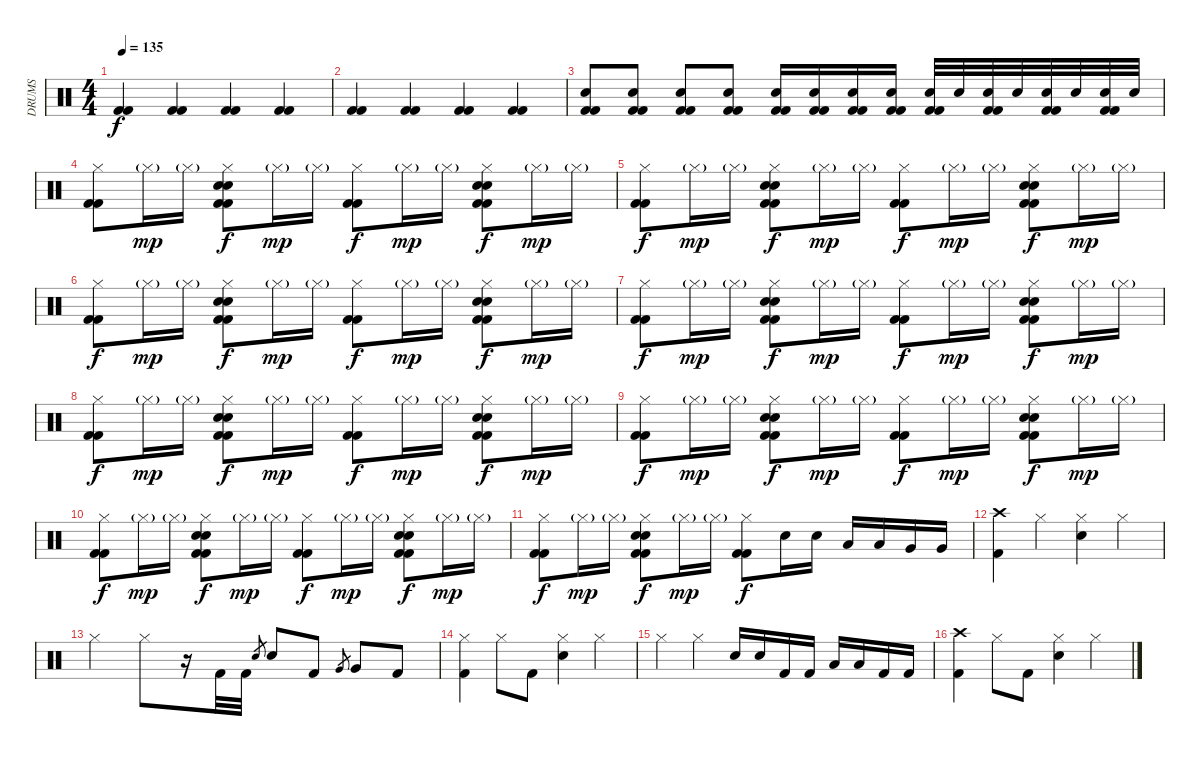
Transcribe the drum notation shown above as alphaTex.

\track ("DRUMS" "DRUMS") {instrument percussion}
\staff {score}
\articulation defaults
\ts (4 4)
\tempo 135
\clef neutral
\ks c
("Kick (hit) 2" "Kick (hit) 2").4{dy f} ("Kick (hit) 2" "Kick (hit) 2").4 ("Kick (hit) 2" "Kick (hit) 2").4 ("Kick (hit) 2" "Kick (hit) 2").4 |
("Kick (hit) 2" "Kick (hit) 2").4 ("Kick (hit) 2" "Kick (hit) 2").4 ("Kick (hit) 2" "Kick (hit) 2").4 ("Kick (hit) 2" "Kick (hit) 2").4 |
("Hand Clap (hit)" "Kick (hit) 2" "Kick (hit) 2").8 ("Hand Clap (hit)" "Kick (hit) 2" "Kick (hit) 2").8 ("Hand Clap (hit)" "Kick (hit) 2" "Kick (hit) 2").8 ("Hand Clap (hit)" "Kick (hit) 2" "Kick (hit) 2").8 ("Hand Clap (hit)" "Kick (hit) 2" "Kick (hit) 2").16 ("Hand Clap (hit)" "Kick (hit) 2" "Kick (hit) 2").16 ("Hand Clap (hit)" "Kick (hit) 2" "Kick (hit) 2").16 ("Hand Clap (hit)" "Kick (hit) 2" "Kick (hit) 2").16 ("Hand Clap (hit)" "Kick (hit) 2" "Kick (hit) 2").32 "Hand Clap (hit)".32 ("Hand Clap (hit)" "Kick (hit) 2" "Kick (hit) 2").32 "Hand Clap (hit)".32 ("Hand Clap (hit)" "Kick (hit) 2" "Kick (hit) 2").32 "Hand Clap (hit)".32 ("Hand Clap (hit)" "Kick (hit) 2" "Kick (hit) 2").32 "Hand Clap (hit)".32 |
("Hi-Hat (closed)" "Kick (hit) 2" "Kick (hit) 2").8 "Hi-Hat (closed)"{g}.16{dy mp} "Hi-Hat (closed)"{g}.16 ("Hand Clap (hit)" "Hi-Hat (closed)" "Hand Clap (hit)" "Kick (hit) 2" "Kick (hit) 2").8{dy f} "Hi-Hat (closed)"{g}.16{dy mp} "Hi-Hat (closed)"{g}.16 ("Hi-Hat (closed)" "Kick (hit) 2" "Kick (hit) 2").8{dy f} "Hi-Hat (closed)"{g}.16{dy mp} "Hi-Hat (closed)"{g}.16 ("Hand Clap (hit)" "Hi-Hat (closed)" "Hand Clap (hit)" "Kick (hit) 2" "Kick (hit) 2").8{dy f} "Hi-Hat (closed)"{g}.16{dy mp} "Hi-Hat (closed)"{g}.16 |
("Hi-Hat (closed)" "Kick (hit) 2" "Kick (hit) 2").8{dy f} "Hi-Hat (closed)"{g}.16{dy mp} "Hi-Hat (closed)"{g}.16 ("Hand Clap (hit)" "Hi-Hat (closed)" "Hand Clap (hit)" "Kick (hit) 2" "Kick (hit) 2").8{dy f} "Hi-Hat (closed)"{g}.16{dy mp} "Hi-Hat (closed)"{g}.16 ("Hi-Hat (closed)" "Kick (hit) 2" "Kick (hit) 2").8{dy f} "Hi-Hat (closed)"{g}.16{dy mp} "Hi-Hat (closed)"{g}.16 ("Hand Clap (hit)" "Hi-Hat (closed)" "Hand Clap (hit)" "Kick (hit) 2" "Kick (hit) 2").8{dy f} "Hi-Hat (closed)"{g}.16{dy mp} "Hi-Hat (closed)"{g}.16 |
("Hi-Hat (closed)" "Kick (hit) 2" "Kick (hit) 2").8{dy f} "Hi-Hat (closed)"{g}.16{dy mp} "Hi-Hat (closed)"{g}.16 ("Hand Clap (hit)" "Hi-Hat (closed)" "Hand Clap (hit)" "Kick (hit) 2" "Kick (hit) 2").8{dy f} "Hi-Hat (closed)"{g}.16{dy mp} "Hi-Hat (closed)"{g}.16 ("Hi-Hat (closed)" "Kick (hit) 2" "Kick (hit) 2").8{dy f} "Hi-Hat (closed)"{g}.16{dy mp} "Hi-Hat (closed)"{g}.16 ("Hand Clap (hit)" "Hi-Hat (closed)" "Hand Clap (hit)" "Kick (hit) 2" "Kick (hit) 2").8{dy f} "Hi-Hat (closed)"{g}.16{dy mp} "Hi-Hat (closed)"{g}.16 |
("Hi-Hat (closed)" "Kick (hit) 2" "Kick (hit) 2").8{dy f} "Hi-Hat (closed)"{g}.16{dy mp} "Hi-Hat (closed)"{g}.16 ("Hand Clap (hit)" "Hi-Hat (closed)" "Hand Clap (hit)" "Kick (hit) 2" "Kick (hit) 2").8{dy f} "Hi-Hat (closed)"{g}.16{dy mp} "Hi-Hat (closed)"{g}.16 ("Hi-Hat (closed)" "Kick (hit) 2" "Kick (hit) 2").8{dy f} "Hi-Hat (closed)"{g}.16{dy mp} "Hi-Hat (closed)"{g}.16 ("Hand Clap (hit)" "Hi-Hat (closed)" "Hand Clap (hit)" "Kick (hit) 2" "Kick (hit) 2").8{dy f} "Hi-Hat (closed)"{g}.16{dy mp} "Hi-Hat (closed)"{g}.16 |
("Hi-Hat (closed)" "Kick (hit) 2" "Kick (hit) 2").8{dy f} "Hi-Hat (closed)"{g}.16{dy mp} "Hi-Hat (closed)"{g}.16 ("Hand Clap (hit)" "Hi-Hat (closed)" "Hand Clap (hit)" "Kick (hit) 2" "Kick (hit) 2").8{dy f} "Hi-Hat (closed)"{g}.16{dy mp} "Hi-Hat (closed)"{g}.16 ("Hi-Hat (closed)" "Kick (hit) 2" "Kick (hit) 2").8{dy f} "Hi-Hat (closed)"{g}.16{dy mp} "Hi-Hat (closed)"{g}.16 ("Hand Clap (hit)" "Hi-Hat (closed)" "Hand Clap (hit)" "Kick (hit) 2" "Kick (hit) 2").8{dy f} "Hi-Hat (closed)"{g}.16{dy mp} "Hi-Hat (closed)"{g}.16 |
("Hi-Hat (closed)" "Kick (hit) 2" "Kick (hit) 2").8{dy f} "Hi-Hat (closed)"{g}.16{dy mp} "Hi-Hat (closed)"{g}.16 ("Hand Clap (hit)" "Hi-Hat (closed)" "Hand Clap (hit)" "Kick (hit) 2" "Kick (hit) 2").8{dy f} "Hi-Hat (closed)"{g}.16{dy mp} "Hi-Hat (closed)"{g}.16 ("Hi-Hat (closed)" "Kick (hit) 2" "Kick (hit) 2").8{dy f} "Hi-Hat (closed)"{g}.16{dy mp} "Hi-Hat (closed)"{g}.16 ("Hand Clap (hit)" "Hi-Hat (closed)" "Hand Clap (hit)" "Kick (hit) 2" "Kick (hit) 2").8{dy f} "Hi-Hat (closed)"{g}.16{dy mp} "Hi-Hat (closed)"{g}.16 |
("Hi-Hat (closed)" "Kick (hit) 2" "Kick (hit) 2").8{dy f} "Hi-Hat (closed)"{g}.16{dy mp} "Hi-Hat (closed)"{g}.16 ("Hand Clap (hit)" "Hi-Hat (closed)" "Hand Clap (hit)" "Kick (hit) 2" "Kick (hit) 2").8{dy f} "Hi-Hat (closed)"{g}.16{dy mp} "Hi-Hat (closed)"{g}.16 ("Hi-Hat (closed)" "Kick (hit) 2" "Kick (hit) 2").8{dy f} "Hi-Hat (closed)"{g}.16{dy mp} "Hi-Hat (closed)"{g}.16 ("Hand Clap (hit)" "Hi-Hat (closed)" "Hand Clap (hit)" "Kick (hit) 2" "Kick (hit) 2").8{dy f} "Hi-Hat (closed)"{g}.16{dy mp} "Hi-Hat (closed)"{g}.16 |
("Hi-Hat (closed)" "Kick (hit) 2" "Kick (hit) 2").8{dy f} "Hi-Hat (closed)"{g}.16{dy mp} "Hi-Hat (closed)"{g}.16 ("Hand Clap (hit)" "Hi-Hat (closed)" "Hand Clap (hit)" "Kick (hit) 2" "Kick (hit) 2").8{dy f} "Hi-Hat (closed)"{g}.16{dy mp} "Hi-Hat (closed)"{g}.16 ("Hi-Hat (closed)" "Kick (hit) 2" "Kick (hit) 2").8{dy f} "Electric Snare (hit)".16 "Electric Snare (hit)".16 "Low Tom (hit)".16 "Low Tom (hit)".16 "Very Low Tom (hit)".16 "Very Low Tom (hit)".16 |
("Crash high (hit)" "Kick (hit) 2").4 "Hi-Hat (closed)".4 ("Hi-Hat (closed)" "Electric Snare (hit)").4 "Hi-Hat (closed)".4 |
"Hi-Hat (closed)".4 "Hi-Hat (closed)".8 r.16 "Kick (hit) 2".32 "Kick (hit) 2".32 "Electric Snare (hit)".8{gr} "Electric Snare (hit)".8 "Kick (hit) 2".8 "Very Low Tom (hit)".8{gr} "Very Low Tom (hit)".8 "Kick (hit) 2".8 |
("Hi-Hat (closed)" "Kick (hit) 2").4 "Hi-Hat (closed)".8 "Kick (hit) 2".8 ("Hi-Hat (closed)" "Electric Snare (hit)").4 "Hi-Hat (closed)".4 |
"Hi-Hat (closed)".4 "Hi-Hat (closed)".4 "Electric Snare (hit)".16 "Electric Snare (hit)".16 "Kick (hit) 2".16 "Kick (hit) 2".16 "Low Tom (hit)".16 "Low Tom (hit)".16 "Kick (hit) 2".16 "Kick (hit) 2".16 |
("Crash high (hit)" "Kick (hit) 2").4 "Hi-Hat (closed)".8 "Kick (hit) 2".8 ("Hi-Hat (closed)" "Electric Snare (hit)").4 "Hi-Hat (closed)".4
